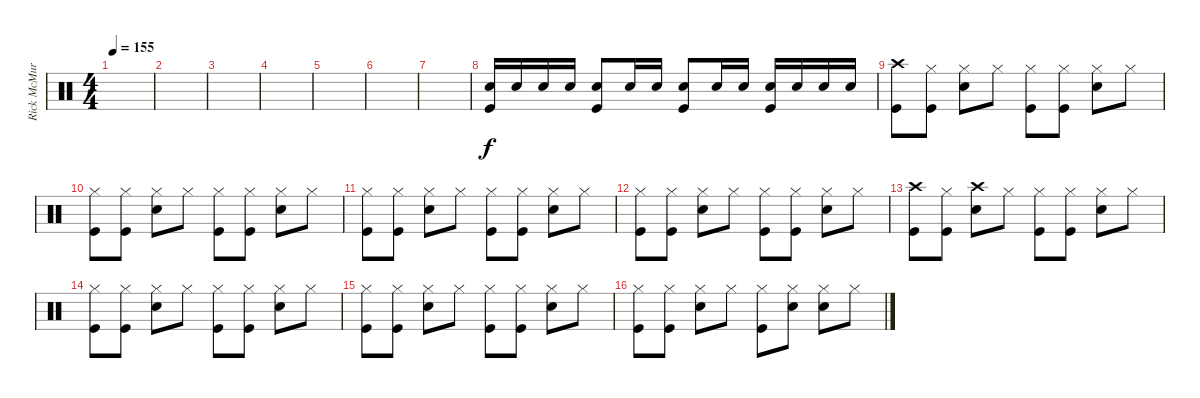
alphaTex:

\track ("Rick McMurray" "Rick McMur") {instrument percussion}
\staff {score}
\articulation defaults
\ts (4 4)
\tempo 155
\clef neutral
\ks c
|
|
|
|
|
|
|
("Snare (hit) 2" "Kick (hit)").16 "Snare (hit) 2".16 "Snare (hit) 2".16 "Snare (hit) 2".16 ("Snare (hit) 2" "Kick (hit)").8 "Snare (hit) 2".16 "Snare (hit) 2".16 ("Snare (hit) 2" "Kick (hit)").8 "Snare (hit) 2".16 "Snare (hit) 2".16 ("Snare (hit) 2" "Kick (hit)").16 "Snare (hit) 2".16 "Snare (hit) 2".16 "Snare (hit) 2".16 |
("Crash high (hit)" "Kick (hit)").8 ("Hi-Hat (closed)" "Kick (hit)").8 ("Hi-Hat (closed)" "Snare (hit) 2").8 "Hi-Hat (closed)".8 ("Hi-Hat (closed)" "Kick (hit)").8 ("Hi-Hat (closed)" "Kick (hit)").8 ("Hi-Hat (closed)" "Snare (hit) 2").8 "Hi-Hat (closed)".8 |
("Hi-Hat (closed)" "Kick (hit)").8 ("Hi-Hat (closed)" "Kick (hit)").8 ("Hi-Hat (closed)" "Snare (hit) 2").8 "Hi-Hat (closed)".8 ("Hi-Hat (closed)" "Kick (hit)").8 ("Hi-Hat (closed)" "Kick (hit)").8 ("Hi-Hat (closed)" "Snare (hit) 2").8 "Hi-Hat (closed)".8 |
("Hi-Hat (closed)" "Kick (hit)").8 ("Hi-Hat (closed)" "Kick (hit)").8 ("Hi-Hat (closed)" "Snare (hit) 2").8 "Hi-Hat (closed)".8 ("Hi-Hat (closed)" "Kick (hit)").8 ("Hi-Hat (closed)" "Kick (hit)").8 ("Hi-Hat (closed)" "Snare (hit) 2").8 "Hi-Hat (closed)".8 |
("Hi-Hat (closed)" "Kick (hit)").8 ("Hi-Hat (closed)" "Kick (hit)").8 ("Hi-Hat (closed)" "Snare (hit) 2").8 "Hi-Hat (closed)".8 ("Hi-Hat (closed)" "Kick (hit)").8 ("Hi-Hat (closed)" "Kick (hit)").8 ("Hi-Hat (closed)" "Snare (hit) 2").8 "Hi-Hat (closed)".8 |
("Crash high (hit)" "Kick (hit)").8 ("Hi-Hat (closed)" "Kick (hit)").8 ("Crash high (hit)" "Snare (hit) 2").8 "Hi-Hat (closed)".8 ("Hi-Hat (closed)" "Kick (hit)").8 ("Hi-Hat (closed)" "Kick (hit)").8 ("Hi-Hat (closed)" "Snare (hit) 2").8 "Hi-Hat (closed)".8 |
("Hi-Hat (closed)" "Kick (hit)").8 ("Hi-Hat (closed)" "Kick (hit)").8 ("Hi-Hat (closed)" "Snare (hit) 2").8 "Hi-Hat (closed)".8 ("Hi-Hat (closed)" "Kick (hit)").8 ("Hi-Hat (closed)" "Kick (hit)").8 ("Hi-Hat (closed)" "Snare (hit) 2").8 "Hi-Hat (closed)".8 |
("Hi-Hat (closed)" "Kick (hit)").8 ("Hi-Hat (closed)" "Kick (hit)").8 ("Hi-Hat (closed)" "Snare (hit) 2").8 "Hi-Hat (closed)".8 ("Hi-Hat (closed)" "Kick (hit)").8 ("Hi-Hat (closed)" "Kick (hit)").8 ("Hi-Hat (closed)" "Snare (hit) 2").8 "Hi-Hat (closed)".8 |
("Hi-Hat (closed)" "Kick (hit)").8 ("Hi-Hat (closed)" "Kick (hit)").8 ("Hi-Hat (closed)" "Snare (hit) 2").8 "Hi-Hat (closed)".8 ("Hi-Hat (closed)" "Kick (hit)").8 ("Hi-Hat (closed)" "Snare (hit) 2").8 ("Hi-Hat (closed)" "Snare (hit) 2").8 "Hi-Hat (closed)".8
